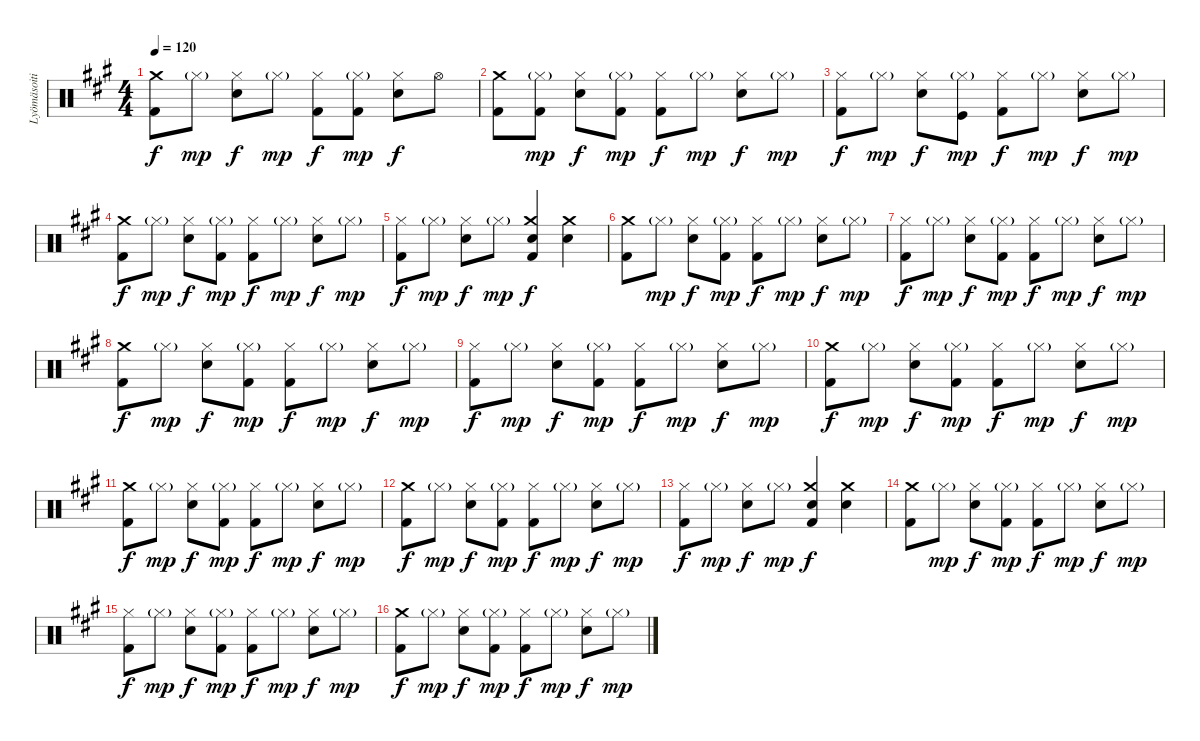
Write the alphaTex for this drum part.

\track ("Lyömäsoitin" "Lyömäsoiti") {instrument percussion}
\staff {score}
\articulation defaults
\ts (4 4)
\tempo 120
\clef neutral
\ks f#minor
("Kick (hit) 2" "Crash medium (hit)").8{dy f} "Hi-Hat (closed)"{g}.8{dy mp} ("Hi-Hat (closed)" "Snare (hit) 2").8{dy f} "Hi-Hat (closed)"{g}.8{dy mp} ("Hi-Hat (closed)" "Kick (hit) 2").8{dy f} ("Hi-Hat (closed)"{g} "Kick (hit) 2").8{dy mp} ("Hi-Hat (closed)" "Snare (hit) 2").8{dy f} "Hi-Hat (open)".8 |
("Kick (hit) 2" "Crash medium (hit)").8 ("Kick (hit) 2" "Hi-Hat (closed)"{g}).8{dy mp} ("Snare (hit) 2" "Hi-Hat (closed)").8{dy f} ("Hi-Hat (closed)"{g} "Kick (hit) 2").8{dy mp} ("Hi-Hat (closed)" "Kick (hit) 2").8{dy f} "Hi-Hat (closed)"{g}.8{dy mp} ("Hi-Hat (closed)" "Snare (hit) 2").8{dy f} "Hi-Hat (closed)"{g}.8{dy mp} |
("Hi-Hat (closed)" "Kick (hit) 2").8{dy f} "Hi-Hat (closed)"{g}.8{dy mp} ("Hi-Hat (closed)" "Snare (hit) 2").8{dy f} ("Hi-Hat (closed)"{g} "Kick (hit)").8{dy mp} ("Hi-Hat (closed)" "Kick (hit) 2").8{dy f} "Hi-Hat (closed)"{g}.8{dy mp} ("Hi-Hat (closed)" "Snare (hit) 2").8{dy f} "Hi-Hat (closed)"{g}.8{dy mp} |
("Kick (hit) 2" "Crash medium (hit)").8{dy f} "Hi-Hat (closed)"{g}.8{dy mp} ("Hi-Hat (closed)" "Snare (hit) 2").8{dy f} ("Hi-Hat (closed)"{g} "Kick (hit) 2").8{dy mp} ("Hi-Hat (closed)" "Kick (hit) 2").8{dy f} "Hi-Hat (closed)"{g}.8{dy mp} ("Hi-Hat (closed)" "Snare (hit) 2").8{dy f} "Hi-Hat (closed)"{g}.8{dy mp} |
("Kick (hit) 2" "Hi-Hat (closed)").8{dy f} "Hi-Hat (closed)"{g}.8{dy mp} ("Hi-Hat (closed)" "Snare (hit) 2").8{dy f} "Hi-Hat (closed)"{g}.8{dy mp} ("Snare (hit) 2" "Crash medium (hit)" "Kick (hit) 2").4{dy f} ("Snare (hit) 2" "Crash medium (hit)").4 |
("Kick (hit) 2" "Crash medium (hit)").8 "Hi-Hat (closed)"{g}.8{dy mp} ("Hi-Hat (closed)" "Snare (hit) 2").8{dy f} ("Hi-Hat (closed)"{g} "Kick (hit) 2").8{dy mp} ("Hi-Hat (closed)" "Kick (hit) 2").8{dy f} "Hi-Hat (closed)"{g}.8{dy mp} ("Hi-Hat (closed)" "Snare (hit) 2").8{dy f} "Hi-Hat (closed)"{g}.8{dy mp} |
("Hi-Hat (closed)" "Kick (hit) 2").8{dy f} "Hi-Hat (closed)"{g}.8{dy mp} ("Hi-Hat (closed)" "Snare (hit) 2").8{dy f} ("Hi-Hat (closed)"{g} "Kick (hit) 2").8{dy mp} ("Hi-Hat (closed)" "Kick (hit) 2").8{dy f} "Hi-Hat (closed)"{g}.8{dy mp} ("Hi-Hat (closed)" "Snare (hit) 2").8{dy f} "Hi-Hat (closed)"{g}.8{dy mp} |
("Kick (hit) 2" "Crash medium (hit)").8{dy f} "Hi-Hat (closed)"{g}.8{dy mp} ("Snare (hit) 2" "Hi-Hat (closed)").8{dy f} ("Hi-Hat (closed)"{g} "Kick (hit) 2").8{dy mp} ("Hi-Hat (closed)" "Kick (hit) 2").8{dy f} "Hi-Hat (closed)"{g}.8{dy mp} ("Hi-Hat (closed)" "Snare (hit) 2").8{dy f} "Hi-Hat (closed)"{g}.8{dy mp} |
("Hi-Hat (closed)" "Kick (hit) 2").8{dy f} "Hi-Hat (closed)"{g}.8{dy mp} ("Hi-Hat (closed)" "Snare (hit) 2").8{dy f} ("Hi-Hat (closed)"{g} "Kick (hit) 2").8{dy mp} ("Hi-Hat (closed)" "Kick (hit) 2").8{dy f} "Hi-Hat (closed)"{g}.8{dy mp} ("Hi-Hat (closed)" "Snare (hit) 2").8{dy f} "Hi-Hat (closed)"{g}.8{dy mp} |
("Kick (hit) 2" "Crash medium (hit)").8{dy f} "Hi-Hat (closed)"{g}.8{dy mp} ("Snare (hit) 2" "Hi-Hat (closed)").8{dy f} ("Hi-Hat (closed)"{g} "Kick (hit) 2").8{dy mp} ("Hi-Hat (closed)" "Kick (hit) 2").8{dy f} "Hi-Hat (closed)"{g}.8{dy mp} ("Hi-Hat (closed)" "Snare (hit) 2").8{dy f} "Hi-Hat (closed)"{g}.8{dy mp} |
("Crash medium (hit)" "Kick (hit) 2").8{dy f} "Hi-Hat (closed)"{g}.8{dy mp} ("Hi-Hat (closed)" "Snare (hit) 2").8{dy f} ("Hi-Hat (closed)"{g} "Kick (hit) 2").8{dy mp} ("Hi-Hat (closed)" "Kick (hit) 2").8{dy f} "Hi-Hat (closed)"{g}.8{dy mp} ("Hi-Hat (closed)" "Snare (hit) 2").8{dy f} "Hi-Hat (closed)"{g}.8{dy mp} |
("Kick (hit) 2" "Crash medium (hit)").8{dy f} "Hi-Hat (closed)"{g}.8{dy mp} ("Hi-Hat (closed)" "Snare (hit) 2").8{dy f} ("Hi-Hat (closed)"{g} "Kick (hit) 2").8{dy mp} ("Hi-Hat (closed)" "Kick (hit) 2").8{dy f} "Hi-Hat (closed)"{g}.8{dy mp} ("Hi-Hat (closed)" "Snare (hit) 2").8{dy f} "Hi-Hat (closed)"{g}.8{dy mp} |
("Kick (hit) 2" "Hi-Hat (closed)").8{dy f} "Hi-Hat (closed)"{g}.8{dy mp} ("Hi-Hat (closed)" "Snare (hit) 2").8{dy f} "Hi-Hat (closed)"{g}.8{dy mp} ("Snare (hit) 2" "Crash medium (hit)" "Kick (hit) 2").4{dy f} ("Snare (hit) 2" "Crash medium (hit)").4 |
("Kick (hit) 2" "Crash medium (hit)").8 "Hi-Hat (closed)"{g}.8{dy mp} ("Hi-Hat (closed)" "Snare (hit) 2").8{dy f} ("Hi-Hat (closed)"{g} "Kick (hit) 2").8{dy mp} ("Hi-Hat (closed)" "Kick (hit) 2").8{dy f} "Hi-Hat (closed)"{g}.8{dy mp} ("Hi-Hat (closed)" "Snare (hit) 2").8{dy f} "Hi-Hat (closed)"{g}.8{dy mp} |
("Hi-Hat (closed)" "Kick (hit) 2").8{dy f} "Hi-Hat (closed)"{g}.8{dy mp} ("Hi-Hat (closed)" "Snare (hit) 2").8{dy f} ("Hi-Hat (closed)"{g} "Kick (hit) 2").8{dy mp} ("Hi-Hat (closed)" "Kick (hit) 2").8{dy f} "Hi-Hat (closed)"{g}.8{dy mp} ("Hi-Hat (closed)" "Snare (hit) 2").8{dy f} "Hi-Hat (closed)"{g}.8{dy mp} |
("Kick (hit) 2" "Crash medium (hit)").8{dy f} "Hi-Hat (closed)"{g}.8{dy mp} ("Snare (hit) 2" "Hi-Hat (closed)").8{dy f} ("Hi-Hat (closed)"{g} "Kick (hit) 2").8{dy mp} ("Hi-Hat (closed)" "Kick (hit) 2").8{dy f} "Hi-Hat (closed)"{g}.8{dy mp} ("Hi-Hat (closed)" "Snare (hit) 2").8{dy f} "Hi-Hat (closed)"{g}.8{dy mp}
